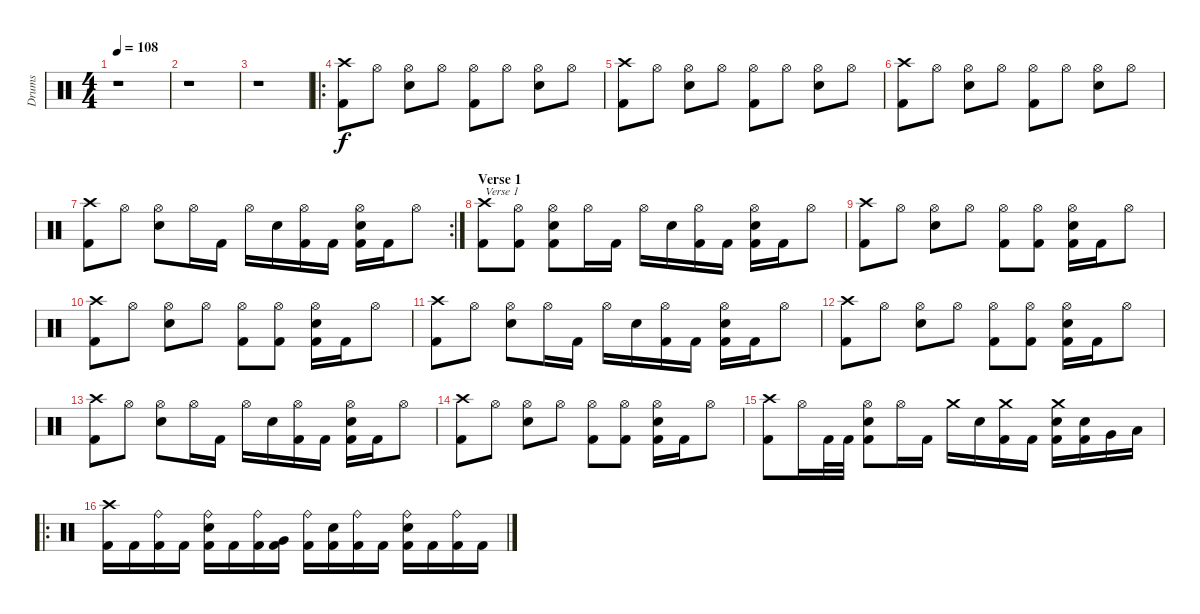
\track ("Drums" "Drums") {instrument percussion}
\staff {score}
\articulation defaults
\ts (4 4)
\tempo 108
\clef neutral
\ks c
r.1{dy f} |
r.1 |
r.1 |
\ro
("Crash high (hit)" "Kick (hit) 2").8 "Hi-Hat (open)".8 ("Hi-Hat (open)" "Electric Snare (hit)").8 "Hi-Hat (open)".8 ("Hi-Hat (open)" "Kick (hit) 2").8 "Hi-Hat (open)".8 ("Hi-Hat (open)" "Electric Snare (hit)").8 "Hi-Hat (open)".8 |
("Crash high (hit)" "Kick (hit) 2").8 "Hi-Hat (open)".8 ("Hi-Hat (open)" "Electric Snare (hit)").8 "Hi-Hat (open)".8 ("Hi-Hat (open)" "Kick (hit) 2").8 "Hi-Hat (open)".8 ("Hi-Hat (open)" "Electric Snare (hit)").8 "Hi-Hat (open)".8 |
("Crash high (hit)" "Kick (hit) 2").8 "Hi-Hat (open)".8 ("Hi-Hat (open)" "Electric Snare (hit)").8 "Hi-Hat (open)".8 ("Hi-Hat (open)" "Kick (hit) 2").8 "Hi-Hat (open)".8 ("Hi-Hat (open)" "Electric Snare (hit)").8 "Hi-Hat (open)".8 |
\rc 2
("Crash high (hit)" "Kick (hit) 2").8 "Hi-Hat (open)".8 ("Hi-Hat (open)" "Electric Snare (hit)").8 "Hi-Hat (open)".16 "Kick (hit) 2".16 "Hi-Hat (open)".16 "Electric Snare (hit)".16 ("Hi-Hat (open)" "Kick (hit) 2").16 "Kick (hit) 2".16 ("Hi-Hat (open)" "Electric Snare (hit)" "Kick (hit) 2").16 "Kick (hit) 2".16 "Hi-Hat (open)".8 |
\section ("" "Verse 1")
("Crash high (hit)" "Kick (hit) 2").8{txt "Verse 1"} ("Hi-Hat (open)" "Kick (hit) 2").8 ("Hi-Hat (open)" "Electric Snare (hit)" "Kick (hit) 2").8 "Hi-Hat (open)".16 "Kick (hit) 2".16 "Hi-Hat (open)".16 "Electric Snare (hit)".16 ("Hi-Hat (open)" "Kick (hit) 2").16 "Kick (hit) 2".16 ("Hi-Hat (open)" "Electric Snare (hit)" "Kick (hit) 2").16 "Kick (hit) 2".16 "Hi-Hat (open)".8 |
("Crash high (hit)" "Kick (hit) 2").8 "Hi-Hat (open)".8 ("Hi-Hat (open)" "Electric Snare (hit)").8 "Hi-Hat (open)".8 ("Hi-Hat (open)" "Kick (hit) 2").8 ("Hi-Hat (open)" "Kick (hit) 2").8 ("Hi-Hat (open)" "Electric Snare (hit)" "Kick (hit) 2").16 "Kick (hit) 2".16 "Hi-Hat (open)".8 |
("Crash high (hit)" "Kick (hit) 2").8 "Hi-Hat (open)".8 ("Hi-Hat (open)" "Electric Snare (hit)").8 "Hi-Hat (open)".8 ("Hi-Hat (open)" "Kick (hit) 2").8 ("Hi-Hat (open)" "Kick (hit) 2").8 ("Hi-Hat (open)" "Electric Snare (hit)" "Kick (hit) 2").16 "Kick (hit) 2".16 "Hi-Hat (open)".8 |
("Crash high (hit)" "Kick (hit) 2").8 "Hi-Hat (open)".8 ("Hi-Hat (open)" "Electric Snare (hit)").8 "Hi-Hat (open)".16 "Kick (hit) 2".16 "Hi-Hat (open)".16 "Electric Snare (hit)".16 ("Hi-Hat (open)" "Kick (hit) 2").16 "Kick (hit) 2".16 ("Hi-Hat (open)" "Electric Snare (hit)" "Kick (hit) 2").16 "Kick (hit) 2".16 "Hi-Hat (open)".8 |
("Crash high (hit)" "Kick (hit) 2").8 "Hi-Hat (open)".8 ("Hi-Hat (open)" "Electric Snare (hit)").8 "Hi-Hat (open)".8 ("Hi-Hat (open)" "Kick (hit) 2").8 ("Hi-Hat (open)" "Kick (hit) 2").8 ("Hi-Hat (open)" "Electric Snare (hit)" "Kick (hit) 2").16 "Kick (hit) 2".16 "Hi-Hat (open)".8 |
("Crash high (hit)" "Kick (hit) 2").8 "Hi-Hat (open)".8 ("Hi-Hat (open)" "Electric Snare (hit)").8 "Hi-Hat (open)".16 "Kick (hit) 2".16 "Hi-Hat (open)".16 "Electric Snare (hit)".16 ("Hi-Hat (open)" "Kick (hit) 2").16 "Kick (hit) 2".16 ("Hi-Hat (open)" "Electric Snare (hit)" "Kick (hit) 2").16 "Kick (hit) 2".16 "Hi-Hat (open)".8 |
("Crash high (hit)" "Kick (hit) 2").8 "Hi-Hat (open)".8 ("Hi-Hat (open)" "Electric Snare (hit)").8 "Hi-Hat (open)".8 ("Hi-Hat (open)" "Kick (hit) 2").8 ("Hi-Hat (open)" "Kick (hit) 2").8 ("Hi-Hat (open)" "Electric Snare (hit)" "Kick (hit) 2").16 "Kick (hit) 2".16 "Hi-Hat (open)".8 |
("Crash high (hit)" "Kick (hit) 2").8 "Hi-Hat (open)".16 "Kick (hit) 2".32 "Kick (hit) 2".32 ("Hi-Hat (open)" "Electric Snare (hit)" "Kick (hit) 2").8 "Hi-Hat (open)".16 "Kick (hit) 2".16 "Crash medium (hit)".16 "Electric Snare (hit)".16 ("Crash medium (hit)" "Kick (hit) 2").16 "Kick (hit) 2".16 ("Crash medium (hit)" "Electric Snare (hit)" "Kick (hit) 2").16 ("Electric Snare (hit)" "Kick (hit) 2").16 "Very Low Tom (hit)".16 "Low Tom (hit)".16 |
\ro
("Crash high (hit)" "Kick (hit) 2").16 "Kick (hit) 2".16 ("Ride (bell)" "Kick (hit) 2").16 "Kick (hit) 2".16 ("Ride (bell)" "Electric Snare (hit)" "Kick (hit) 2").16 "Kick (hit) 2".16 ("Ride (bell)" "Kick (hit) 2").16 ("Very Low Tom (hit)" "Kick (hit) 2").16 ("Ride (bell)" "Kick (hit) 2").16 ("Electric Snare (hit)" "Kick (hit) 2").16 ("Ride (bell)" "Kick (hit) 2").16 "Kick (hit) 2".16 ("Ride (bell)" "Electric Snare (hit)" "Kick (hit) 2").16 "Kick (hit) 2".16 ("Ride (bell)" "Kick (hit) 2").16 "Kick (hit) 2".16
